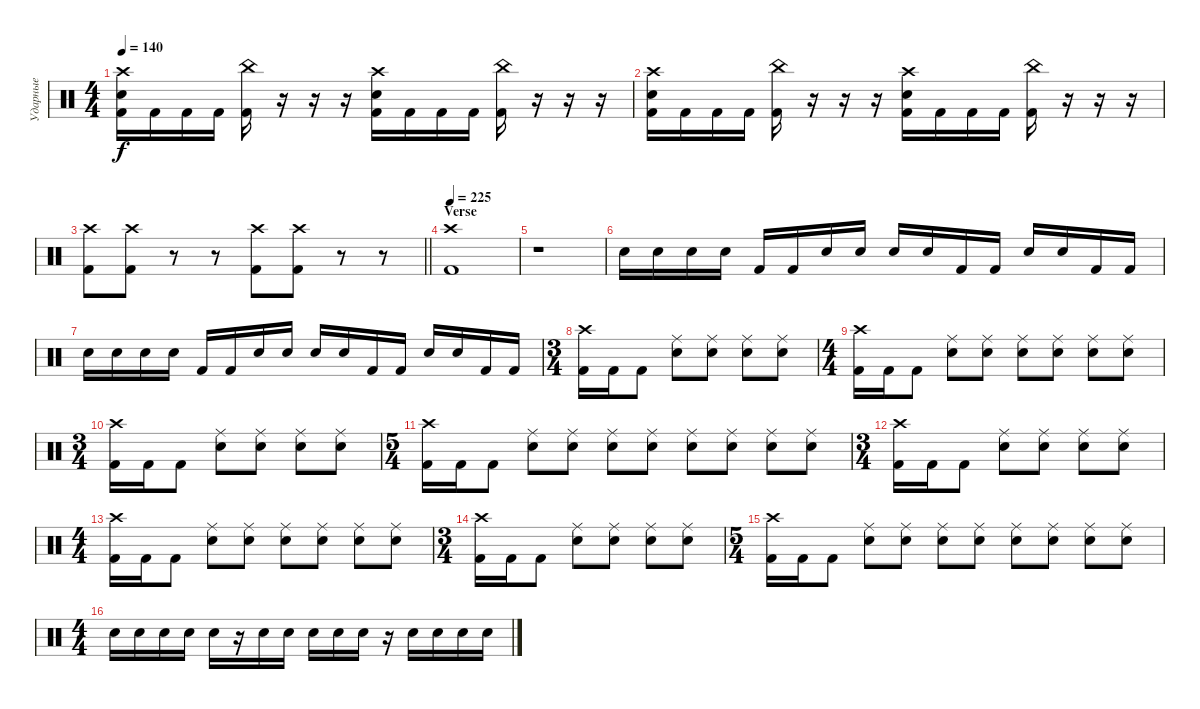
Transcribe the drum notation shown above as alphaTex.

\track ("Ударные" "Ударные") {instrument percussion}
\staff {score}
\articulation defaults
\ts (4 4)
\tempo 140
\clef neutral
\ks c
("Crash high (hit)" "Electric Snare (hit)" "Kick (hit) 2").16{dy f} "Kick (hit) 2".16 "Kick (hit) 2".16 "Kick (hit) 2".16 ("China (hit)" "Kick (hit) 2").16 r.16 r.16 r.16 ("Crash high (hit)" "Electric Snare (hit)" "Kick (hit) 2").16 "Kick (hit) 2".16 "Kick (hit) 2".16 "Kick (hit) 2".16 ("China (hit)" "Kick (hit) 2").16 r.16 r.16 r.16 |
("Crash high (hit)" "Electric Snare (hit)" "Kick (hit) 2").16 "Kick (hit) 2".16 "Kick (hit) 2".16 "Kick (hit) 2".16 ("China (hit)" "Kick (hit) 2").16 r.16 r.16 r.16 ("Crash high (hit)" "Electric Snare (hit)" "Kick (hit) 2").16 "Kick (hit) 2".16 "Kick (hit) 2".16 "Kick (hit) 2".16 ("China (hit)" "Kick (hit) 2").16 r.16 r.16 r.16 |
\barLineRight lightlight
("Crash high (hit)" "Kick (hit) 2").8 ("Crash high (hit)" "Kick (hit) 2").8 r.8 r.8 ("Crash high (hit)" "Kick (hit) 2").8 ("Crash high (hit)" "Kick (hit) 2").8 r.8 r.8 |
\section ("" "Verse")
\tempo 225
("Crash high (hit)" "Kick (hit) 2").1 |
r.1 |
"Electric Snare (hit)".16 "Electric Snare (hit)".16 "Electric Snare (hit)".16 "Electric Snare (hit)".16 "Kick (hit) 2".16 "Kick (hit) 2".16 "Electric Snare (hit)".16 "Electric Snare (hit)".16 "Electric Snare (hit)".16 "Electric Snare (hit)".16 "Kick (hit) 2".16 "Kick (hit) 2".16 "Electric Snare (hit)".16 "Electric Snare (hit)".16 "Kick (hit) 2".16 "Kick (hit) 2".16 |
"Electric Snare (hit)".16 "Electric Snare (hit)".16 "Electric Snare (hit)".16 "Electric Snare (hit)".16 "Kick (hit) 2".16 "Kick (hit) 2".16 "Electric Snare (hit)".16 "Electric Snare (hit)".16 "Electric Snare (hit)".16 "Electric Snare (hit)".16 "Kick (hit) 2".16 "Kick (hit) 2".16 "Electric Snare (hit)".16 "Electric Snare (hit)".16 "Kick (hit) 2".16 "Kick (hit) 2".16 |
\ts (3 4)
("Crash high (hit)" "Kick (hit) 2").16 "Kick (hit) 2".16 "Kick (hit) 2".8 ("Ride (middle)" "Electric Snare (hit)").8 ("Ride (middle)" "Electric Snare (hit)").8 ("Ride (middle)" "Electric Snare (hit)").8 ("Ride (middle)" "Electric Snare (hit)").8 |
\ts (4 4)
("Crash high (hit)" "Kick (hit) 2").16 "Kick (hit) 2".16 "Kick (hit) 2".8 ("Ride (middle)" "Electric Snare (hit)").8 ("Ride (middle)" "Electric Snare (hit)").8 ("Ride (middle)" "Electric Snare (hit)").8 ("Ride (middle)" "Electric Snare (hit)").8 ("Ride (middle)" "Electric Snare (hit)").8 ("Ride (middle)" "Electric Snare (hit)").8 |
\ts (3 4)
("Crash high (hit)" "Kick (hit) 2").16 "Kick (hit) 2".16 "Kick (hit) 2".8 ("Ride (middle)" "Electric Snare (hit)").8 ("Ride (middle)" "Electric Snare (hit)").8 ("Ride (middle)" "Electric Snare (hit)").8 ("Ride (middle)" "Electric Snare (hit)").8 |
\ts (5 4)
("Crash high (hit)" "Kick (hit) 2").16 "Kick (hit) 2".16 "Kick (hit) 2".8 ("Ride (middle)" "Electric Snare (hit)").8 ("Ride (middle)" "Electric Snare (hit)").8 ("Ride (middle)" "Electric Snare (hit)").8 ("Ride (middle)" "Electric Snare (hit)").8 ("Ride (middle)" "Electric Snare (hit)").8 ("Ride (middle)" "Electric Snare (hit)").8 ("Ride (middle)" "Electric Snare (hit)").8 ("Ride (middle)" "Electric Snare (hit)").8 |
\ts (3 4)
("Crash high (hit)" "Kick (hit) 2").16 "Kick (hit) 2".16 "Kick (hit) 2".8 ("Ride (middle)" "Electric Snare (hit)").8 ("Ride (middle)" "Electric Snare (hit)").8 ("Ride (middle)" "Electric Snare (hit)").8 ("Ride (middle)" "Electric Snare (hit)").8 |
\ts (4 4)
("Crash high (hit)" "Kick (hit) 2").16 "Kick (hit) 2".16 "Kick (hit) 2".8 ("Ride (middle)" "Electric Snare (hit)").8 ("Ride (middle)" "Electric Snare (hit)").8 ("Ride (middle)" "Electric Snare (hit)").8 ("Ride (middle)" "Electric Snare (hit)").8 ("Ride (middle)" "Electric Snare (hit)").8 ("Ride (middle)" "Electric Snare (hit)").8 |
\ts (3 4)
("Crash high (hit)" "Kick (hit) 2").16 "Kick (hit) 2".16 "Kick (hit) 2".8 ("Ride (middle)" "Electric Snare (hit)").8 ("Ride (middle)" "Electric Snare (hit)").8 ("Ride (middle)" "Electric Snare (hit)").8 ("Ride (middle)" "Electric Snare (hit)").8 |
\ts (5 4)
("Crash high (hit)" "Kick (hit) 2").16 "Kick (hit) 2".16 "Kick (hit) 2".8 ("Ride (middle)" "Electric Snare (hit)").8 ("Ride (middle)" "Electric Snare (hit)").8 ("Ride (middle)" "Electric Snare (hit)").8 ("Ride (middle)" "Electric Snare (hit)").8 ("Ride (middle)" "Electric Snare (hit)").8 ("Ride (middle)" "Electric Snare (hit)").8 ("Ride (middle)" "Electric Snare (hit)").8 ("Ride (middle)" "Electric Snare (hit)").8 |
\ts (4 4)
"Electric Snare (hit)".16 "Electric Snare (hit)".16 "Electric Snare (hit)".16 "Electric Snare (hit)".16 "Electric Snare (hit)".16 r.16 "Electric Snare (hit)".16 "Electric Snare (hit)".16 "Electric Snare (hit)".16 "Electric Snare (hit)".16 "Electric Snare (hit)".16 r.16 "Electric Snare (hit)".16 "Electric Snare (hit)".16 "Electric Snare (hit)".16 "Electric Snare (hit)".16
